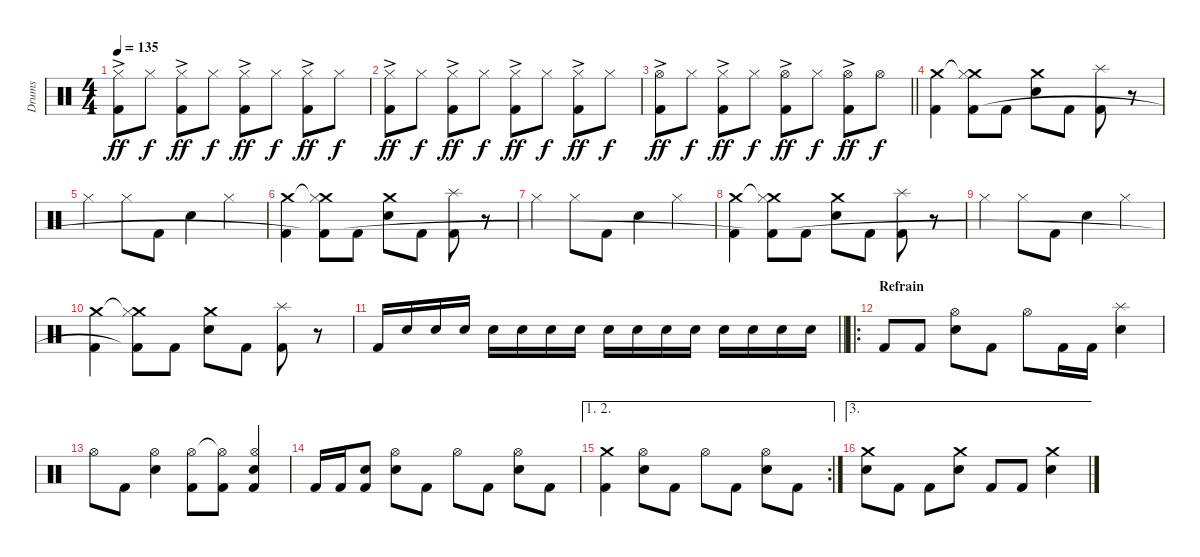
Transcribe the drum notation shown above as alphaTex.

\track ("Drums" "Drums") {instrument percussion}
\staff {score}
\articulation defaults
\ts (4 4)
\tempo 135
\clef neutral
\ks c
("Hi-Hat (closed)"{ac} "Kick (hit) 2").8{dy ff} "Hi-Hat (closed)".8{dy f} ("Hi-Hat (closed)"{ac} "Kick (hit) 2").8{dy ff} "Hi-Hat (closed)".8{dy f} ("Hi-Hat (closed)"{ac} "Kick (hit) 2").8{dy ff} "Hi-Hat (closed)".8{dy f} ("Hi-Hat (closed)"{ac} "Kick (hit) 2").8{dy ff} "Hi-Hat (closed)".8{dy f} |
("Hi-Hat (closed)"{ac} "Kick (hit) 2").8{dy ff} "Hi-Hat (closed)".8{dy f} ("Hi-Hat (closed)"{ac} "Kick (hit) 2").8{dy ff} "Hi-Hat (closed)".8{dy f} ("Hi-Hat (closed)"{ac} "Kick (hit) 2").8{dy ff} "Hi-Hat (closed)".8{dy f} ("Hi-Hat (closed)"{ac} "Kick (hit) 2").8{dy ff} "Hi-Hat (closed)".8{dy f} |
\barLineRight lightlight
("Hi-Hat (open)"{ac} "Kick (hit) 2").8{dy ff} "Hi-Hat (closed)".8{dy f} ("Hi-Hat (closed)"{ac} "Kick (hit) 2").8{dy ff} "Hi-Hat (closed)".8{dy f} ("Hi-Hat (open)"{ac} "Kick (hit) 2").8{dy ff} "Hi-Hat (closed)".8{dy f} ("Hi-Hat (open)"{ac} "Kick (hit) 2").8{dy ff} "Hi-Hat (open)".8{dy f} |
("Crash medium (hit)" "Kick (hit) 2").4 ("Crash medium (hit)"{t} "Hi-Hat (closed)" "Kick (hit) 2").8 "Kick (hit) 2".8 ("Crash medium (hit)" "Snare (hit) 2").8 "Kick (hit) 2".8 ("Splash (hit)" "Kick (hit) 2").8 r.8 |
"Hi-Hat (closed)".4 "Hi-Hat (closed)".8 "Kick (hit) 2".8 "Snare (hit) 2".4 "Hi-Hat (closed)".4 |
("Crash medium (hit)" "Kick (hit) 2").4 ("Crash medium (hit)"{t} "Hi-Hat (closed)" "Kick (hit) 2"{t}).8 "Kick (hit) 2".8 ("Crash medium (hit)" "Snare (hit) 2").8 "Kick (hit) 2".8 ("Splash (hit)" "Kick (hit) 2").8 r.8 |
"Hi-Hat (closed)".4 "Hi-Hat (closed)".8 "Kick (hit) 2".8 "Snare (hit) 2".4 "Hi-Hat (closed)".4 |
("Crash medium (hit)" "Kick (hit) 2").4 ("Crash medium (hit)"{t} "Hi-Hat (closed)" "Kick (hit) 2"{t}).8 "Kick (hit) 2".8 ("Crash medium (hit)" "Snare (hit) 2").8 "Kick (hit) 2".8 ("Splash (hit)" "Kick (hit) 2").8 r.8 |
"Hi-Hat (closed)".4 "Hi-Hat (closed)".8 "Kick (hit) 2".8 "Snare (hit) 2".4 "Hi-Hat (closed)".4 |
("Crash medium (hit)" "Kick (hit) 2").4 ("Crash medium (hit)"{t} "Hi-Hat (closed)" "Kick (hit) 2"{t}).8 "Kick (hit) 2".8 ("Crash medium (hit)" "Snare (hit) 2").8 "Kick (hit) 2".8 ("Splash (hit)" "Kick (hit) 2").8 r.8 |
\barLineRight lightlight "Kick (hit) 2".16 "Snare (hit) 2".16 "Snare (hit) 2".16 "Snare (hit) 2".16 "Snare (hit) 2".16 "Snare (hit) 2".16 "Snare (hit) 2".16 "Snare (hit) 2".16 "Snare (hit) 2".16 "Snare (hit) 2".16 "Snare (hit) 2".16 "Snare (hit) 2".16 "Snare (hit) 2".16 "Snare (hit) 2".16 "Snare (hit) 2".16 "Snare (hit) 2".16
|
\ro
\section ("" "Refrain")
"Kick (hit) 2".8 "Kick (hit) 2".8 ("Hi-Hat (open)" "Snare (hit) 2").8 "Kick (hit) 2".8 "Hi-Hat (open)".8 "Kick (hit) 2".16 "Kick (hit) 2".16 ("Splash (hit)" "Snare (hit) 2").4 |
"Hi-Hat (open)".8 "Kick (hit) 2".8 ("Hi-Hat (open)" "Snare (hit) 2").4 ("Hi-Hat (open)" "Kick (hit) 2").8 ("Hi-Hat (open)"{t} "Kick (hit) 2").8 ("Hi-Hat (open)" "Snare (hit) 2" "Kick (hit) 2").4 |
"Kick (hit) 2".16 "Kick (hit) 2".16 ("Snare (hit) 2" "Kick (hit) 2").8 ("Hi-Hat (open)" "Snare (hit) 2").8 "Kick (hit) 2".8 "Hi-Hat (open)".8 "Kick (hit) 2".8 ("Hi-Hat (open)" "Snare (hit) 2").8 "Kick (hit) 2".8 |
\ae (1 2)
\rc 2
("Crash medium (hit)" "Kick (hit) 2").4 ("Hi-Hat (open)" "Snare (hit) 2").8 "Kick (hit) 2".8 "Hi-Hat (open)".8 "Kick (hit) 2".8 ("Hi-Hat (open)" "Snare (hit) 2").8 "Kick (hit) 2".8 |
\ae 3
("Crash medium (hit)" "Snare (hit) 2").8 "Kick (hit) 2".8 "Kick (hit) 2".8 ("Crash medium (hit)" "Snare (hit) 2").8 "Kick (hit) 2".8 "Kick (hit) 2".8 ("Crash medium (hit)" "Snare (hit) 2").4
